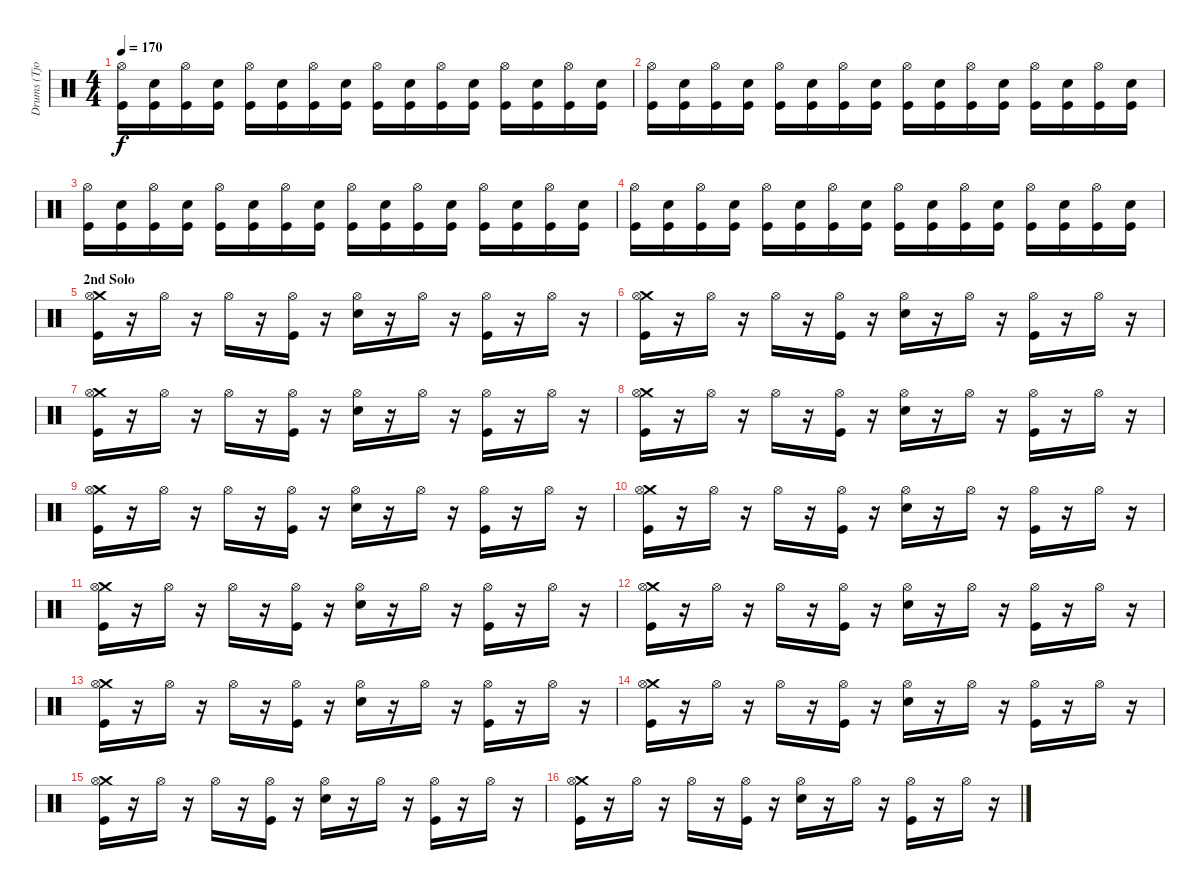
\track ("Drums (Tjodalv)" "Drums (Tjo") {instrument percussion}
\staff {score}
\articulation defaults
\ts (4 4)
\tempo 170
\clef neutral
\ks c
("Hi-Hat (open)" "Kick (hit)").16{dy f} ("Kick (hit)" "Electric Snare (hit)").16 ("Hi-Hat (open)" "Kick (hit)").16 ("Kick (hit)" "Electric Snare (hit)").16 ("Hi-Hat (open)" "Kick (hit)").16 ("Kick (hit)" "Electric Snare (hit)").16 ("Hi-Hat (open)" "Kick (hit)").16 ("Kick (hit)" "Electric Snare (hit)").16 ("Hi-Hat (open)" "Kick (hit)").16 ("Kick (hit)" "Electric Snare (hit)").16 ("Hi-Hat (open)" "Kick (hit)").16 ("Kick (hit)" "Electric Snare (hit)").16 ("Hi-Hat (open)" "Kick (hit)").16 ("Kick (hit)" "Electric Snare (hit)").16 ("Hi-Hat (open)" "Kick (hit)").16 ("Kick (hit)" "Electric Snare (hit)").16 |
("Hi-Hat (open)" "Kick (hit)").16 ("Kick (hit)" "Electric Snare (hit)").16 ("Hi-Hat (open)" "Kick (hit)").16 ("Kick (hit)" "Electric Snare (hit)").16 ("Hi-Hat (open)" "Kick (hit)").16 ("Kick (hit)" "Electric Snare (hit)").16 ("Hi-Hat (open)" "Kick (hit)").16 ("Kick (hit)" "Electric Snare (hit)").16 ("Hi-Hat (open)" "Kick (hit)").16 ("Kick (hit)" "Electric Snare (hit)").16 ("Hi-Hat (open)" "Kick (hit)").16 ("Kick (hit)" "Electric Snare (hit)").16 ("Hi-Hat (open)" "Kick (hit)").16 ("Kick (hit)" "Electric Snare (hit)").16 ("Hi-Hat (open)" "Kick (hit)").16 ("Kick (hit)" "Electric Snare (hit)").16 |
("Hi-Hat (open)" "Kick (hit)").16 ("Kick (hit)" "Electric Snare (hit)").16 ("Hi-Hat (open)" "Kick (hit)").16 ("Kick (hit)" "Electric Snare (hit)").16 ("Hi-Hat (open)" "Kick (hit)").16 ("Kick (hit)" "Electric Snare (hit)").16 ("Hi-Hat (open)" "Kick (hit)").16 ("Kick (hit)" "Electric Snare (hit)").16 ("Hi-Hat (open)" "Kick (hit)").16 ("Kick (hit)" "Electric Snare (hit)").16 ("Hi-Hat (open)" "Kick (hit)").16 ("Kick (hit)" "Electric Snare (hit)").16 ("Hi-Hat (open)" "Kick (hit)").16 ("Kick (hit)" "Electric Snare (hit)").16 ("Hi-Hat (open)" "Kick (hit)").16 ("Kick (hit)" "Electric Snare (hit)").16 |
("Hi-Hat (open)" "Kick (hit)").16 ("Kick (hit)" "Electric Snare (hit)").16 ("Hi-Hat (open)" "Kick (hit)").16 ("Kick (hit)" "Electric Snare (hit)").16 ("Hi-Hat (open)" "Kick (hit)").16 ("Kick (hit)" "Electric Snare (hit)").16 ("Hi-Hat (open)" "Kick (hit)").16 ("Kick (hit)" "Electric Snare (hit)").16 ("Hi-Hat (open)" "Kick (hit)").16 ("Kick (hit)" "Electric Snare (hit)").16 ("Hi-Hat (open)" "Kick (hit)").16 ("Kick (hit)" "Electric Snare (hit)").16 ("Hi-Hat (open)" "Kick (hit)").16 ("Kick (hit)" "Electric Snare (hit)").16 ("Hi-Hat (open)" "Kick (hit)").16 ("Kick (hit)" "Electric Snare (hit)").16 |
\section ("" "2nd Solo")
("Crash medium (hit)" "Hi-Hat (open)" "Kick (hit)").16 r.16 "Hi-Hat (open)".16 r.16 "Hi-Hat (open)".16 r.16 ("Kick (hit)" "Hi-Hat (open)").16 r.16 ("Electric Snare (hit)" "Hi-Hat (open)").16 r.16 "Hi-Hat (open)".16 r.16 ("Kick (hit)" "Hi-Hat (open)").16 r.16 "Hi-Hat (open)".16 r.16 |
("Crash medium (hit)" "Hi-Hat (open)" "Kick (hit)").16 r.16 "Hi-Hat (open)".16 r.16 "Hi-Hat (open)".16 r.16 ("Kick (hit)" "Hi-Hat (open)").16 r.16 ("Electric Snare (hit)" "Hi-Hat (open)").16 r.16 "Hi-Hat (open)".16 r.16 ("Kick (hit)" "Hi-Hat (open)").16 r.16 "Hi-Hat (open)".16 r.16 |
("Crash medium (hit)" "Hi-Hat (open)" "Kick (hit)").16 r.16 "Hi-Hat (open)".16 r.16 "Hi-Hat (open)".16 r.16 ("Kick (hit)" "Hi-Hat (open)").16 r.16 ("Electric Snare (hit)" "Hi-Hat (open)").16 r.16 "Hi-Hat (open)".16 r.16 ("Kick (hit)" "Hi-Hat (open)").16 r.16 "Hi-Hat (open)".16 r.16 |
("Crash medium (hit)" "Hi-Hat (open)" "Kick (hit)").16 r.16 "Hi-Hat (open)".16 r.16 "Hi-Hat (open)".16 r.16 ("Kick (hit)" "Hi-Hat (open)").16 r.16 ("Electric Snare (hit)" "Hi-Hat (open)").16 r.16 "Hi-Hat (open)".16 r.16 ("Kick (hit)" "Hi-Hat (open)").16 r.16 "Hi-Hat (open)".16 r.16 |
("Crash medium (hit)" "Hi-Hat (open)" "Kick (hit)").16 r.16 "Hi-Hat (open)".16 r.16 "Hi-Hat (open)".16 r.16 ("Kick (hit)" "Hi-Hat (open)").16 r.16 ("Electric Snare (hit)" "Hi-Hat (open)").16 r.16 "Hi-Hat (open)".16 r.16 ("Kick (hit)" "Hi-Hat (open)").16 r.16 "Hi-Hat (open)".16 r.16 |
("Crash medium (hit)" "Hi-Hat (open)" "Kick (hit)").16 r.16 "Hi-Hat (open)".16 r.16 "Hi-Hat (open)".16 r.16 ("Kick (hit)" "Hi-Hat (open)").16 r.16 ("Electric Snare (hit)" "Hi-Hat (open)").16 r.16 "Hi-Hat (open)".16 r.16 ("Kick (hit)" "Hi-Hat (open)").16 r.16 "Hi-Hat (open)".16 r.16 |
("Crash medium (hit)" "Hi-Hat (open)" "Kick (hit)").16 r.16 "Hi-Hat (open)".16 r.16 "Hi-Hat (open)".16 r.16 ("Kick (hit)" "Hi-Hat (open)").16 r.16 ("Electric Snare (hit)" "Hi-Hat (open)").16 r.16 "Hi-Hat (open)".16 r.16 ("Kick (hit)" "Hi-Hat (open)").16 r.16 "Hi-Hat (open)".16 r.16 |
("Crash medium (hit)" "Hi-Hat (open)" "Kick (hit)").16 r.16 "Hi-Hat (open)".16 r.16 "Hi-Hat (open)".16 r.16 ("Kick (hit)" "Hi-Hat (open)").16 r.16 ("Electric Snare (hit)" "Hi-Hat (open)").16 r.16 "Hi-Hat (open)".16 r.16 ("Kick (hit)" "Hi-Hat (open)").16 r.16 "Hi-Hat (open)".16 r.16 |
("Crash medium (hit)" "Hi-Hat (open)" "Kick (hit)").16 r.16 "Hi-Hat (open)".16 r.16 "Hi-Hat (open)".16 r.16 ("Kick (hit)" "Hi-Hat (open)").16 r.16 ("Electric Snare (hit)" "Hi-Hat (open)").16 r.16 "Hi-Hat (open)".16 r.16 ("Kick (hit)" "Hi-Hat (open)").16 r.16 "Hi-Hat (open)".16 r.16 |
("Crash medium (hit)" "Hi-Hat (open)" "Kick (hit)").16 r.16 "Hi-Hat (open)".16 r.16 "Hi-Hat (open)".16 r.16 ("Kick (hit)" "Hi-Hat (open)").16 r.16 ("Electric Snare (hit)" "Hi-Hat (open)").16 r.16 "Hi-Hat (open)".16 r.16 ("Kick (hit)" "Hi-Hat (open)").16 r.16 "Hi-Hat (open)".16 r.16 |
("Crash medium (hit)" "Hi-Hat (open)" "Kick (hit)").16 r.16 "Hi-Hat (open)".16 r.16 "Hi-Hat (open)".16 r.16 ("Kick (hit)" "Hi-Hat (open)").16 r.16 ("Electric Snare (hit)" "Hi-Hat (open)").16 r.16 "Hi-Hat (open)".16 r.16 ("Kick (hit)" "Hi-Hat (open)").16 r.16 "Hi-Hat (open)".16 r.16 |
("Crash medium (hit)" "Hi-Hat (open)" "Kick (hit)").16 r.16 "Hi-Hat (open)".16 r.16 "Hi-Hat (open)".16 r.16 ("Kick (hit)" "Hi-Hat (open)").16 r.16 ("Electric Snare (hit)" "Hi-Hat (open)").16 r.16 "Hi-Hat (open)".16 r.16 ("Kick (hit)" "Hi-Hat (open)").16 r.16 "Hi-Hat (open)".16 r.16
